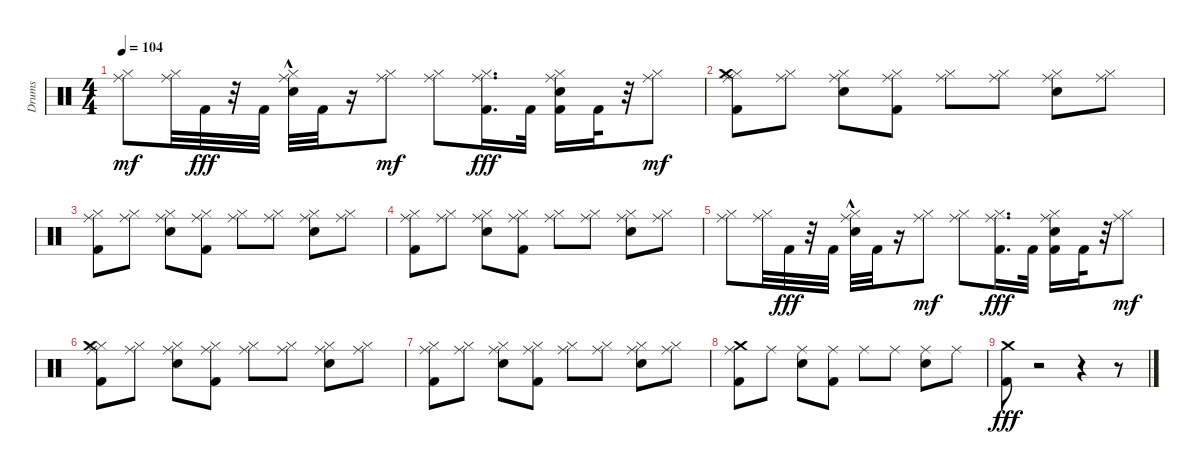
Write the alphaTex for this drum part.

\track ("Drums" "Drums") {instrument percussion}
\staff {score}
\articulation defaults
\ts (4 4)
\tempo 104
\clef neutral
\ks c
("Hi-Hat (closed)" "Ride (middle)").8{dy mf} ("Hi-Hat (closed)" "Ride (middle)").32 "Kick (hit) 2".32{dy fff} r.32 "Kick (hit) 2".32 ("Hi-Hat (closed)" "Ride (middle)" "Snare (hit) 2"{hac}).32 "Kick (hit) 2".32 r.16 ("Hi-Hat (closed)" "Ride (middle)").8{dy mf} ("Hi-Hat (closed)" "Ride (middle)").8 ("Hi-Hat (closed)" "Ride (middle)" "Kick (hit) 2").16{d dy fff} "Kick (hit) 2".32 ("Snare (hit) 2" "Hi-Hat (closed)" "Ride (middle)" "Kick (hit) 2").16 "Kick (hit) 2".32 r.32 ("Hi-Hat (closed)" "Ride (middle)").8{dy mf} |
("Kick (hit) 2" "Hi-Hat (closed)" "Crash medium (hit)" "Ride (middle)").8 ("Hi-Hat (closed)" "Ride (middle)").8 ("Snare (hit) 2" "Hi-Hat (closed)" "Ride (middle)").8 ("Kick (hit) 2" "Hi-Hat (closed)" "Ride (middle)").8 ("Hi-Hat (closed)" "Ride (middle)").8 ("Hi-Hat (closed)" "Ride (middle)").8 ("Snare (hit) 2" "Hi-Hat (closed)" "Ride (middle)").8 ("Hi-Hat (closed)" "Ride (middle)").8 |
("Kick (hit) 2" "Hi-Hat (closed)" "Ride (middle)").8 ("Hi-Hat (closed)" "Ride (middle)").8 ("Snare (hit) 2" "Hi-Hat (closed)" "Ride (middle)").8 ("Kick (hit) 2" "Hi-Hat (closed)" "Ride (middle)").8 ("Hi-Hat (closed)" "Ride (middle)").8 ("Hi-Hat (closed)" "Ride (middle)").8 ("Snare (hit) 2" "Hi-Hat (closed)" "Ride (middle)").8 ("Hi-Hat (closed)" "Ride (middle)").8 |
("Kick (hit) 2" "Hi-Hat (closed)" "Ride (middle)").8 ("Hi-Hat (closed)" "Ride (middle)").8 ("Snare (hit) 2" "Hi-Hat (closed)" "Ride (middle)").8 ("Kick (hit) 2" "Hi-Hat (closed)" "Ride (middle)").8 ("Hi-Hat (closed)" "Ride (middle)").8 ("Hi-Hat (closed)" "Ride (middle)").8 ("Snare (hit) 2" "Hi-Hat (closed)" "Ride (middle)").8 ("Hi-Hat (closed)" "Ride (middle)").8 |
("Hi-Hat (closed)" "Ride (middle)").8 ("Hi-Hat (closed)" "Ride (middle)").32 "Kick (hit) 2".32{dy fff} r.32 "Kick (hit) 2".32 ("Hi-Hat (closed)" "Ride (middle)" "Snare (hit) 2"{hac}).32 "Kick (hit) 2".32 r.16 ("Hi-Hat (closed)" "Ride (middle)").8{dy mf} ("Hi-Hat (closed)" "Ride (middle)").8 ("Hi-Hat (closed)" "Ride (middle)" "Kick (hit) 2").16{d dy fff} "Kick (hit) 2".32 ("Snare (hit) 2" "Hi-Hat (closed)" "Ride (middle)" "Kick (hit) 2").16 "Kick (hit) 2".32 r.32 ("Hi-Hat (closed)" "Ride (middle)").8{dy mf} |
("Kick (hit) 2" "Hi-Hat (closed)" "Crash medium (hit)" "Ride (middle)").8 ("Hi-Hat (closed)" "Ride (middle)").8 ("Snare (hit) 2" "Hi-Hat (closed)" "Ride (middle)").8 ("Kick (hit) 2" "Hi-Hat (closed)" "Ride (middle)").8 ("Hi-Hat (closed)" "Ride (middle)").8 ("Hi-Hat (closed)" "Ride (middle)").8 ("Snare (hit) 2" "Hi-Hat (closed)" "Ride (middle)").8 ("Hi-Hat (closed)" "Ride (middle)").8 |
("Kick (hit) 2" "Hi-Hat (closed)" "Ride (middle)").8 ("Hi-Hat (closed)" "Ride (middle)").8 ("Snare (hit) 2" "Hi-Hat (closed)" "Ride (middle)").8 ("Kick (hit) 2" "Hi-Hat (closed)" "Ride (middle)").8 ("Hi-Hat (closed)" "Ride (middle)").8 ("Hi-Hat (closed)" "Ride (middle)").8 ("Snare (hit) 2" "Hi-Hat (closed)" "Ride (middle)").8 ("Hi-Hat (closed)" "Ride (middle)").8 |
("Kick (hit) 2" "Crash medium (hit)" "Ride (middle)").8 "Ride (middle)".8 ("Snare (hit) 2" "Ride (middle)").8 ("Kick (hit) 2" "Ride (middle)").8 "Ride (middle)".8 "Ride (middle)".8 ("Snare (hit) 2" "Ride (middle)").8 "Ride (middle)".8 |
("Kick (hit) 2" "Crash medium (hit)").8{dy fff} r.2 r.4 r.8
